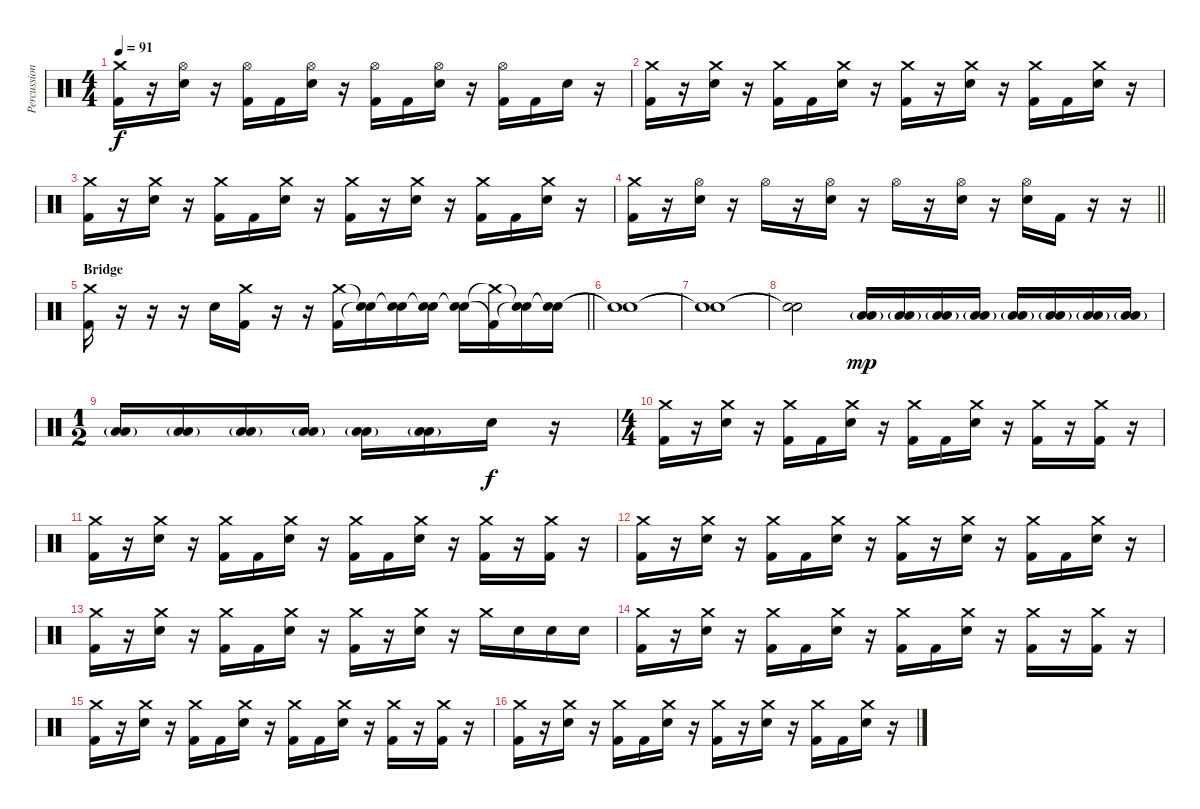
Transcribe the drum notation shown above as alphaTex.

\track ("Percussion" "Percussion") {instrument percussion}
\staff {score}
\articulation defaults
\ts (4 4)
\tempo 91
\clef neutral
\ks c
("Crash medium (hit)" "Kick (hit) 2").16{dy f} r.16 ("Hi-Hat (open)" "Electric Snare (hit)").16 r.16 ("Hi-Hat (open)" "Kick (hit) 2").16 "Kick (hit) 2".16 ("Hi-Hat (open)" "Electric Snare (hit)").16 r.16 ("Hi-Hat (open)" "Kick (hit) 2").16 "Kick (hit) 2".16 ("Hi-Hat (open)" "Electric Snare (hit)").16 r.16 ("Hi-Hat (open)" "Kick (hit) 2").16 "Kick (hit) 2".16 "Electric Snare (hit)".16 r.16 |
("Crash medium (hit)" "Kick (hit) 2").16 r.16 ("Crash medium (hit)" "Electric Snare (hit)").16 r.16 ("Crash medium (hit)" "Kick (hit) 2").16 "Kick (hit) 2".16 ("Crash medium (hit)" "Electric Snare (hit)").16 r.16 ("Crash medium (hit)" "Kick (hit) 2").16 r.16 ("Crash medium (hit)" "Electric Snare (hit)").16 r.16 ("Crash medium (hit)" "Kick (hit) 2").16 "Kick (hit) 2".16 ("Crash medium (hit)" "Electric Snare (hit)").16 r.16 |
("Crash medium (hit)" "Kick (hit) 2").16 r.16 ("Crash medium (hit)" "Electric Snare (hit)").16 r.16 ("Crash medium (hit)" "Kick (hit) 2").16 "Kick (hit) 2".16 ("Crash medium (hit)" "Electric Snare (hit)").16 r.16 ("Crash medium (hit)" "Kick (hit) 2").16 r.16 ("Crash medium (hit)" "Electric Snare (hit)").16 r.16 ("Crash medium (hit)" "Kick (hit) 2").16 "Kick (hit) 2".16 ("Crash medium (hit)" "Electric Snare (hit)").16 r.16 |
\barLineRight lightlight
("Crash medium (hit)" "Kick (hit) 2").16 r.16 ("Hi-Hat (open)" "Electric Snare (hit)").16 r.16 "Hi-Hat (open)".16 r.16 ("Hi-Hat (open)" "Electric Snare (hit)").16 r.16 "Hi-Hat (open)".16 r.16 ("Hi-Hat (open)" "Electric Snare (hit)").16 r.16 ("Hi-Hat (open)" "Electric Snare (hit)").16 "Kick (hit) 2".16 r.16 r.16 |
\section ("" "Bridge")
\barLineRight lightlight
("Crash medium (hit)" "Kick (hit) 2").16 r.16 r.16 r.16 "Electric Snare (hit)".16 ("Crash medium (hit)" "Kick (hit) 2").16 r.16 r.16 ("Crash medium (hit)" "Kick (hit) 2").16 ("Snare (hit)"{t} "Snare (hit)"{t}).16 ("Snare (hit)"{t} "Snare (hit)"{t}).16 ("Snare (hit)"{t} "Snare (hit)"{t}).16 ("Snare (hit)"{t} "Electric Snare (hit)"{t}).16 ("Crash medium (hit)"{t} "Kick (hit) 2"{t}).16 ("Snare (hit)"{t} "Snare (hit)"{t}).16 ("Snare (hit)"{t} "Snare (hit)"{t}).16 |
("Snare (hit)"{t} "Snare (hit)"{t}).1{volume 0} |
("Snare (hit)"{t} "Snare (hit)"{t}).1 |
("Snare (hit)"{t} "Snare (hit)"{t}).2{volume 16} ("Low Floor Tom (hit)"{g} "Low Tom (hit)").16{dy mp} ("Low Floor Tom (hit)"{g} "Low Tom (hit)").16 ("Low Floor Tom (hit)"{g} "Low Tom (hit)").16 ("Low Floor Tom (hit)"{g} "Low Tom (hit)").16 ("Low Floor Tom (hit)"{g} "Low Tom (hit)").16 ("Low Floor Tom (hit)"{g} "Low Tom (hit)").16 ("Low Floor Tom (hit)"{g} "Low Tom (hit)").16 ("Low Floor Tom (hit)"{g} "Low Tom (hit)").16 |
\ts (1 2)
("Low Floor Tom (hit)"{g} "Low Tom (hit)").16 ("Low Floor Tom (hit)"{g} "Low Tom (hit)").16 ("Low Floor Tom (hit)"{g} "Low Tom (hit)").16 ("Low Floor Tom (hit)"{g} "Low Tom (hit)").16 ("Low Floor Tom (hit)"{g} "Low Tom (hit)").16 ("Low Floor Tom (hit)"{g} "Low Tom (hit)").16 "Electric Snare (hit)".16{dy f} r.16 |
\ts (4 4)
("Crash medium (hit)" "Kick (hit) 2").16 r.16 ("Crash medium (hit)" "Electric Snare (hit)").16 r.16 ("Crash medium (hit)" "Kick (hit) 2").16 "Kick (hit) 2".16 ("Crash medium (hit)" "Electric Snare (hit)").16 r.16 ("Crash medium (hit)" "Kick (hit) 2").16 "Kick (hit) 2".16 ("Crash medium (hit)" "Electric Snare (hit)").16 r.16 ("Crash medium (hit)" "Kick (hit) 2").16 r.16 ("Crash medium (hit)" "Kick (hit) 2").16 r.16 |
("Crash medium (hit)" "Kick (hit) 2").16 r.16 ("Crash medium (hit)" "Electric Snare (hit)").16 r.16 ("Crash medium (hit)" "Kick (hit) 2").16 "Kick (hit) 2".16 ("Crash medium (hit)" "Electric Snare (hit)").16 r.16 ("Crash medium (hit)" "Kick (hit) 2").16 "Kick (hit) 2".16 ("Crash medium (hit)" "Electric Snare (hit)").16 r.16 ("Crash medium (hit)" "Kick (hit) 2").16 r.16 ("Crash medium (hit)" "Kick (hit) 2").16 r.16 |
("Crash medium (hit)" "Kick (hit) 2").16 r.16 ("Crash medium (hit)" "Electric Snare (hit)").16 r.16 ("Crash medium (hit)" "Kick (hit) 2").16 "Kick (hit) 2".16 ("Crash medium (hit)" "Electric Snare (hit)").16 r.16 ("Crash medium (hit)" "Kick (hit) 2").16 r.16 ("Crash medium (hit)" "Electric Snare (hit)").16 r.16 ("Crash medium (hit)" "Kick (hit) 2").16 "Kick (hit) 2".16 ("Crash medium (hit)" "Electric Snare (hit)").16 r.16 |
("Crash medium (hit)" "Kick (hit) 2").16 r.16 ("Crash medium (hit)" "Electric Snare (hit)").16 r.16 ("Crash medium (hit)" "Kick (hit) 2").16 "Kick (hit) 2".16 ("Crash medium (hit)" "Electric Snare (hit)").16 r.16 ("Crash medium (hit)" "Kick (hit) 2").16 r.16 ("Crash medium (hit)" "Electric Snare (hit)").16 r.16 "Crash medium (hit)".16 "Electric Snare (hit)".16 "Electric Snare (hit)".16 "Electric Snare (hit)".16 |
("Crash medium (hit)" "Kick (hit) 2").16 r.16 ("Crash medium (hit)" "Electric Snare (hit)").16 r.16 ("Crash medium (hit)" "Kick (hit) 2").16 "Kick (hit) 2".16 ("Crash medium (hit)" "Electric Snare (hit)").16 r.16 ("Crash medium (hit)" "Kick (hit) 2").16 "Kick (hit) 2".16 ("Crash medium (hit)" "Electric Snare (hit)").16 r.16 ("Crash medium (hit)" "Kick (hit) 2").16 r.16 ("Crash medium (hit)" "Kick (hit) 2").16 r.16 |
("Crash medium (hit)" "Kick (hit) 2").16 r.16 ("Crash medium (hit)" "Electric Snare (hit)").16 r.16 ("Crash medium (hit)" "Kick (hit) 2").16 "Kick (hit) 2".16 ("Crash medium (hit)" "Electric Snare (hit)").16 r.16 ("Crash medium (hit)" "Kick (hit) 2").16 "Kick (hit) 2".16 ("Crash medium (hit)" "Electric Snare (hit)").16 r.16 ("Crash medium (hit)" "Kick (hit) 2").16 r.16 ("Crash medium (hit)" "Kick (hit) 2").16 r.16 |
("Crash medium (hit)" "Kick (hit) 2").16 r.16 ("Crash medium (hit)" "Electric Snare (hit)").16 r.16 ("Crash medium (hit)" "Kick (hit) 2").16 "Kick (hit) 2".16 ("Crash medium (hit)" "Electric Snare (hit)").16 r.16 ("Crash medium (hit)" "Kick (hit) 2").16 r.16 ("Crash medium (hit)" "Electric Snare (hit)").16 r.16 ("Crash medium (hit)" "Kick (hit) 2").16 "Kick (hit) 2".16 ("Crash medium (hit)" "Electric Snare (hit)").16 r.16
